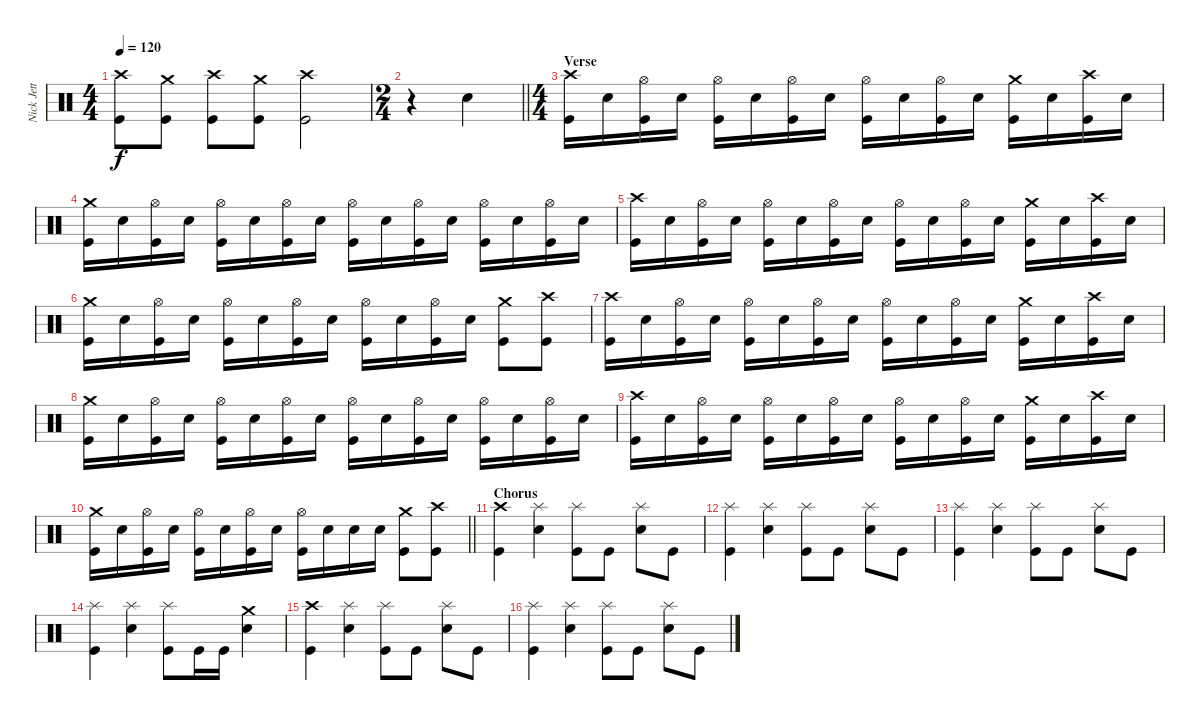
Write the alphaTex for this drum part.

\track ("Nick Jett" "Nick Jett") {instrument percussion}
\staff {score}
\articulation defaults
\ts (4 4)
\tempo 120
\clef neutral
\ks c
("Crash high (hit)" "Kick (hit)").8{dy f} ("Crash medium (hit)" "Kick (hit)").8 ("Crash high (hit)" "Kick (hit)").8 ("Crash medium (hit)" "Kick (hit)").8 ("Crash high (hit)" "Kick (hit)").2 |
\ts (2 4)
\barLineRight lightlight
r.4 "Electric Snare (hit)".4 |
\ts (4 4)
\section ("" "Verse")
("Crash high (hit)" "Kick (hit)").16 "Electric Snare (hit)".16 ("Hi-Hat (open)" "Kick (hit)").16 "Electric Snare (hit)".16 ("Hi-Hat (open)" "Kick (hit)").16 "Electric Snare (hit)".16 ("Hi-Hat (open)" "Kick (hit)").16 "Electric Snare (hit)".16 ("Hi-Hat (open)" "Kick (hit)").16 "Electric Snare (hit)".16 ("Hi-Hat (open)" "Kick (hit)").16 "Electric Snare (hit)".16 ("Crash medium (hit)" "Kick (hit)").16 "Electric Snare (hit)".16 ("Crash high (hit)" "Kick (hit)").16 "Electric Snare (hit)".16 |
("Crash medium (hit)" "Kick (hit)").16 "Electric Snare (hit)".16 ("Hi-Hat (open)" "Kick (hit)").16 "Electric Snare (hit)".16 ("Hi-Hat (open)" "Kick (hit)").16 "Electric Snare (hit)".16 ("Hi-Hat (open)" "Kick (hit)").16 "Electric Snare (hit)".16 ("Hi-Hat (open)" "Kick (hit)").16 "Electric Snare (hit)".16 ("Hi-Hat (open)" "Kick (hit)").16 "Electric Snare (hit)".16 ("Hi-Hat (open)" "Kick (hit)").16 "Electric Snare (hit)".16 ("Hi-Hat (open)" "Kick (hit)").16 "Electric Snare (hit)".16 |
("Crash high (hit)" "Kick (hit)").16 "Electric Snare (hit)".16 ("Hi-Hat (open)" "Kick (hit)").16 "Electric Snare (hit)".16 ("Hi-Hat (open)" "Kick (hit)").16 "Electric Snare (hit)".16 ("Hi-Hat (open)" "Kick (hit)").16 "Electric Snare (hit)".16 ("Hi-Hat (open)" "Kick (hit)").16 "Electric Snare (hit)".16 ("Hi-Hat (open)" "Kick (hit)").16 "Electric Snare (hit)".16 ("Crash medium (hit)" "Kick (hit)").16 "Electric Snare (hit)".16 ("Crash high (hit)" "Kick (hit)").16 "Electric Snare (hit)".16 |
("Crash medium (hit)" "Kick (hit)").16 "Electric Snare (hit)".16 ("Hi-Hat (open)" "Kick (hit)").16 "Electric Snare (hit)".16 ("Hi-Hat (open)" "Kick (hit)").16 "Electric Snare (hit)".16 ("Hi-Hat (open)" "Kick (hit)").16 "Electric Snare (hit)".16 ("Hi-Hat (open)" "Kick (hit)").16 "Electric Snare (hit)".16 ("Hi-Hat (open)" "Kick (hit)").16 "Electric Snare (hit)".16 ("Crash medium (hit)" "Kick (hit)").8 ("Crash high (hit)" "Kick (hit)").8 |
("Crash high (hit)" "Kick (hit)").16 "Electric Snare (hit)".16 ("Hi-Hat (open)" "Kick (hit)").16 "Electric Snare (hit)".16 ("Hi-Hat (open)" "Kick (hit)").16 "Electric Snare (hit)".16 ("Hi-Hat (open)" "Kick (hit)").16 "Electric Snare (hit)".16 ("Hi-Hat (open)" "Kick (hit)").16 "Electric Snare (hit)".16 ("Hi-Hat (open)" "Kick (hit)").16 "Electric Snare (hit)".16 ("Crash medium (hit)" "Kick (hit)").16 "Electric Snare (hit)".16 ("Crash high (hit)" "Kick (hit)").16 "Electric Snare (hit)".16 |
("Crash medium (hit)" "Kick (hit)").16 "Electric Snare (hit)".16 ("Hi-Hat (open)" "Kick (hit)").16 "Electric Snare (hit)".16 ("Hi-Hat (open)" "Kick (hit)").16 "Electric Snare (hit)".16 ("Hi-Hat (open)" "Kick (hit)").16 "Electric Snare (hit)".16 ("Hi-Hat (open)" "Kick (hit)").16 "Electric Snare (hit)".16 ("Hi-Hat (open)" "Kick (hit)").16 "Electric Snare (hit)".16 ("Hi-Hat (open)" "Kick (hit)").16 "Electric Snare (hit)".16 ("Hi-Hat (open)" "Kick (hit)").16 "Electric Snare (hit)".16 |
("Crash high (hit)" "Kick (hit)").16 "Electric Snare (hit)".16 ("Hi-Hat (open)" "Kick (hit)").16 "Electric Snare (hit)".16 ("Hi-Hat (open)" "Kick (hit)").16 "Electric Snare (hit)".16 ("Hi-Hat (open)" "Kick (hit)").16 "Electric Snare (hit)".16 ("Hi-Hat (open)" "Kick (hit)").16 "Electric Snare (hit)".16 ("Hi-Hat (open)" "Kick (hit)").16 "Electric Snare (hit)".16 ("Crash medium (hit)" "Kick (hit)").16 "Electric Snare (hit)".16 ("Crash high (hit)" "Kick (hit)").16 "Electric Snare (hit)".16 |
\barLineRight lightlight
("Crash medium (hit)" "Kick (hit)").16 "Electric Snare (hit)".16 ("Hi-Hat (open)" "Kick (hit)").16 "Electric Snare (hit)".16 ("Hi-Hat (open)" "Kick (hit)").16 "Electric Snare (hit)".16 ("Hi-Hat (open)" "Kick (hit)").16 "Electric Snare (hit)".16 ("Hi-Hat (open)" "Kick (hit)").16 "Electric Snare (hit)".16 "Electric Snare (hit)".16 "Electric Snare (hit)".16 ("Crash medium (hit)" "Kick (hit)").8 ("Crash high (hit)" "Kick (hit)").8 |
\section ("" "Chorus")
("Crash high (hit)" "Kick (hit)").4 ("Splash (hit)" "Electric Snare (hit)").4 ("Splash (hit)" "Kick (hit)").8 "Kick (hit)".8 ("Splash (hit)" "Electric Snare (hit)").8 "Kick (hit)".8 |
("Splash (hit)" "Kick (hit)").4 ("Splash (hit)" "Electric Snare (hit)").4 ("Splash (hit)" "Kick (hit)").8 "Kick (hit)".8 ("Splash (hit)" "Electric Snare (hit)").8 "Kick (hit)".8 |
("Splash (hit)" "Kick (hit)").4 ("Splash (hit)" "Electric Snare (hit)").4 ("Splash (hit)" "Kick (hit)").8 "Kick (hit)".8 ("Splash (hit)" "Electric Snare (hit)").8 "Kick (hit)".8 |
("Splash (hit)" "Kick (hit)").4 ("Splash (hit)" "Electric Snare (hit)").4 ("Splash (hit)" "Kick (hit)").8 "Kick (hit)".16 "Kick (hit)".16 ("Crash medium (hit)" "Electric Snare (hit)").4 |
("Crash high (hit)" "Kick (hit)").4 ("Splash (hit)" "Electric Snare (hit)").4 ("Splash (hit)" "Kick (hit)").8 "Kick (hit)".8 ("Splash (hit)" "Electric Snare (hit)").8 "Kick (hit)".8 |
("Splash (hit)" "Kick (hit)").4 ("Splash (hit)" "Electric Snare (hit)").4 ("Splash (hit)" "Kick (hit)").8 "Kick (hit)".8 ("Splash (hit)" "Electric Snare (hit)").8 "Kick (hit)".8
